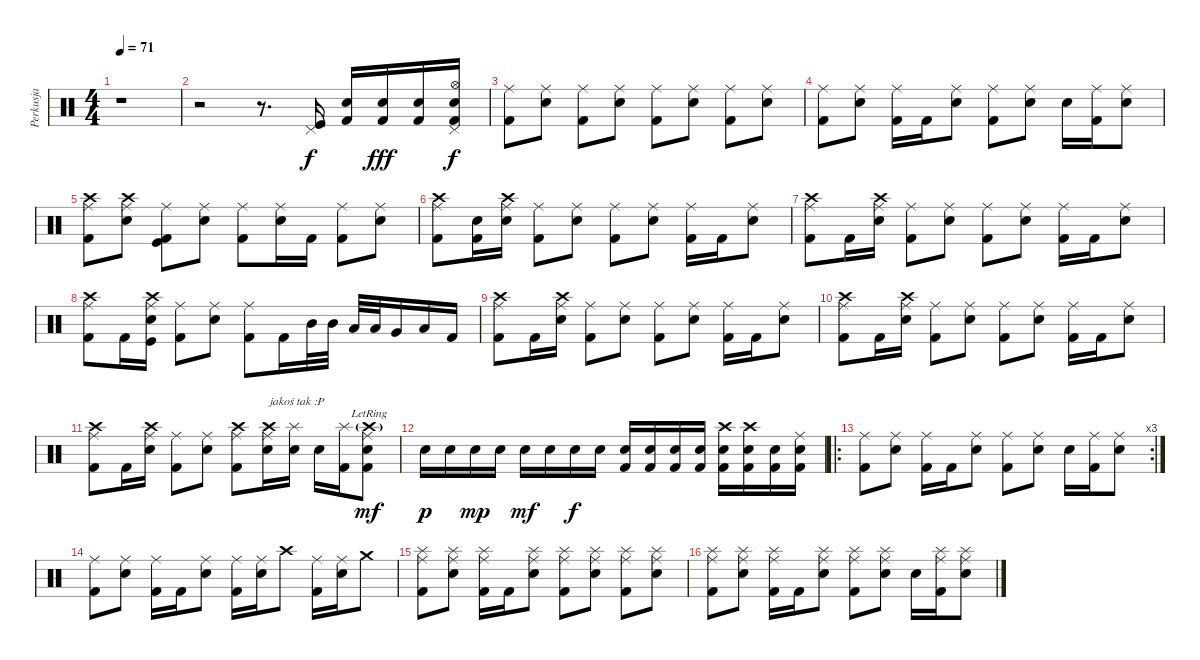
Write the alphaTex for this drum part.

\track ("Perkusja" "Perkusja") {instrument percussion}
\staff {score}
\articulation defaults
\ts (4 4)
\tempo 71
\clef neutral
\ks c
r.1{dy f} |
r.2 r.8{d} ("Pedal Hi-Hat (hit)" "Kick (hit)").16 ("Snare (hit) 2" "Kick (hit) 2").16 ("Snare (hit) 2" "Kick (hit) 2").16{dy fff} ("Snare (hit) 2" "Kick (hit) 2").16 ("Hi-Hat (open)" "Pedal Hi-Hat (hit)" "Electric Snare (hit)" "Kick (hit) 2").16{dy f} |
("Ride (middle)" "Kick (hit) 2").8 ("Ride (middle)" "Electric Snare (hit)").8 ("Ride (middle)" "Kick (hit) 2").8 ("Ride (middle)" "Electric Snare (hit)").8 ("Ride (middle)" "Kick (hit) 2").8 ("Ride (middle)" "Electric Snare (hit)").8 ("Ride (middle)" "Kick (hit) 2").8 ("Ride (middle)" "Electric Snare (hit)").8 |
("Ride (middle)" "Kick (hit) 2").8 ("Ride (middle)" "Electric Snare (hit)").8 ("Ride (middle)" "Kick (hit) 2").16 "Kick (hit) 2".16 ("Ride (middle)" "Electric Snare (hit)").8 ("Ride (middle)" "Kick (hit) 2").8 ("Ride (middle)" "Electric Snare (hit)").8 "Electric Snare (hit)".16 ("Ride (middle)" "Kick (hit) 2").16 ("Ride (middle)" "Electric Snare (hit)").8 |
("Ride (middle)" "Crash high (hit)" "Kick (hit) 2").8 ("Ride (middle)" "Crash high (hit)" "Electric Snare (hit)").8 ("Ride (middle)" "Kick (hit)" "Kick (hit) 2").8 ("Ride (middle)" "Electric Snare (hit)").8 ("Ride (middle)" "Kick (hit) 2").8 ("Ride (middle)" "Electric Snare (hit)").16 "Kick (hit) 2".16 ("Ride (middle)" "Kick (hit) 2").8 ("Ride (middle)" "Electric Snare (hit)").8 |
("Ride (middle)" "Kick (hit) 2" "Crash high (hit)").8 ("Electric Snare (hit)" "Kick (hit) 2").16 ("Ride (middle)" "Electric Snare (hit)" "Crash high (hit)").16 ("Ride (middle)" "Kick (hit) 2").8 ("Ride (middle)" "Electric Snare (hit)").8 ("Ride (middle)" "Kick (hit) 2").8 ("Ride (middle)" "Electric Snare (hit)").8 ("Ride (middle)" "Kick (hit) 2").16 "Kick (hit) 2".16 ("Ride (middle)" "Electric Snare (hit)").8 |
("Ride (middle)" "Kick (hit) 2" "Crash high (hit)").8 "Kick (hit) 2".16 ("Ride (middle)" "Electric Snare (hit)" "Crash high (hit)").16 ("Ride (middle)" "Kick (hit) 2").8 ("Ride (middle)" "Electric Snare (hit)").8 ("Ride (middle)" "Kick (hit) 2").8 ("Ride (middle)" "Electric Snare (hit)").8 ("Ride (middle)" "Kick (hit) 2").16 "Kick (hit) 2".16 ("Ride (middle)" "Electric Snare (hit)").8 |
("Ride (middle)" "Crash high (hit)" "Kick (hit) 2").8 "Kick (hit) 2".16 ("Ride (middle)" "Crash high (hit)" "Electric Snare (hit)" "Kick (hit)").16 ("Ride (middle)" "Kick (hit) 2").8 ("Ride (middle)" "Electric Snare (hit)").8 ("Ride (middle)" "Kick (hit) 2").8 "Kick (hit) 2".16 "Mid Tom (hit)".32 "Mid Tom (hit)".32 "Low Tom (hit)".32 "Low Tom (hit)".32 "Very Low Tom (hit)".16 "Low Floor Tom (hit)".16 "Kick (hit) 2".16 |
("Ride (middle)" "Kick (hit) 2" "Crash high (hit)").8 "Kick (hit) 2".16 ("Ride (middle)" "Electric Snare (hit)" "Crash high (hit)").16 ("Ride (middle)" "Kick (hit) 2").8 ("Ride (middle)" "Electric Snare (hit)").8 ("Ride (middle)" "Kick (hit) 2").8 ("Ride (middle)" "Electric Snare (hit)").8 ("Ride (middle)" "Kick (hit) 2").16 "Kick (hit) 2".16 ("Ride (middle)" "Electric Snare (hit)").8 |
("Ride (middle)" "Kick (hit) 2" "Crash high (hit)").8 "Kick (hit) 2".16 ("Ride (middle)" "Electric Snare (hit)" "Crash high (hit)").16 ("Ride (middle)" "Kick (hit) 2").8 ("Ride (middle)" "Electric Snare (hit)").8 ("Ride (middle)" "Kick (hit) 2").8 ("Ride (middle)" "Electric Snare (hit)").8 ("Ride (middle)" "Kick (hit) 2").16 "Kick (hit) 2".16 ("Ride (middle)" "Electric Snare (hit)").8 |
("Ride (middle)" "Kick (hit) 2" "Crash high (hit)").8 "Kick (hit) 2".16 ("Ride (middle)" "Electric Snare (hit)" "Crash high (hit)").16 ("Ride (middle)" "Kick (hit) 2").8 ("Ride (middle)" "Electric Snare (hit)").8 ("Ride (middle)" "Kick (hit) 2" "Crash high (hit)").8 ("Ride (middle)" "Electric Snare (hit)" "Crash high (hit)").16{txt "jakoś tak :P"} ("Splash (hit)" "Electric Snare (hit)").16 "Electric Snare (hit)".16 ("Splash (hit)" "Kick (hit) 2").16 ("Ride (middle)"{lr} "Crash high (hit)"{g lr} "Kick (hit) 2"{lr} "Electric Snare (hit)").8{dy mf} |
"Electric Snare (hit)".16{dy p} "Electric Snare (hit)".16 "Electric Snare (hit)".16{dy mp} "Electric Snare (hit)".16 "Electric Snare (hit)".16{dy mf} "Electric Snare (hit)".16 "Electric Snare (hit)".16{dy f} "Electric Snare (hit)".16 ("Kick (hit) 2" "Electric Snare (hit)").16 ("Kick (hit) 2" "Electric Snare (hit)").16 ("Kick (hit) 2" "Electric Snare (hit)").16 ("Kick (hit) 2" "Electric Snare (hit)").16 ("Crash high (hit)" "Kick (hit) 2" "Electric Snare (hit)").16 ("Crash high (hit)" "Kick (hit) 2" "Electric Snare (hit)").16 ("Kick (hit) 2" "Electric Snare (hit)").16 ("Ride (middle)" "Kick (hit) 2" "Electric Snare (hit)").16 |
\ro
\rc 3
("Ride (middle)" "Kick (hit) 2").8 ("Ride (middle)" "Electric Snare (hit)").8 ("Ride (middle)" "Kick (hit) 2").16 "Kick (hit) 2".16 ("Ride (middle)" "Electric Snare (hit)").8 ("Ride (middle)" "Kick (hit) 2").8 ("Ride (middle)" "Electric Snare (hit)").8 "Electric Snare (hit)".16 ("Ride (middle)" "Kick (hit) 2").16 ("Ride (middle)" "Electric Snare (hit)").8 |
("Ride (middle)" "Kick (hit) 2").8 ("Ride (middle)" "Electric Snare (hit)").8 ("Ride (middle)" "Kick (hit) 2").16 "Kick (hit) 2".16 ("Ride (middle)" "Electric Snare (hit)").8 ("Ride (middle)" "Kick (hit) 2").16 ("Ride (middle)" "Electric Snare (hit)").16 "Crash high (hit)".8 ("Ride (middle)" "Kick (hit) 2").16 ("Ride (middle)" "Electric Snare (hit)").16 "Crash medium (hit)".8 |
("Ride (middle)" "Splash (hit)" "Kick (hit) 2").8 ("Ride (middle)" "Splash (hit)" "Electric Snare (hit)").8 ("Ride (middle)" "Splash (hit)" "Kick (hit) 2").16 "Kick (hit) 2".16 ("Ride (middle)" "Splash (hit)" "Electric Snare (hit)").8 ("Ride (middle)" "Splash (hit)" "Kick (hit) 2").8 ("Ride (middle)" "Splash (hit)" "Electric Snare (hit)").8 ("Ride (middle)" "Splash (hit)" "Kick (hit) 2").8 ("Ride (middle)" "Splash (hit)" "Electric Snare (hit)").8 |
("Ride (middle)" "Splash (hit)" "Kick (hit) 2").8 ("Ride (middle)" "Splash (hit)" "Electric Snare (hit)").8 ("Ride (middle)" "Splash (hit)" "Kick (hit) 2").16 "Kick (hit) 2".16 ("Ride (middle)" "Splash (hit)" "Electric Snare (hit)").8 ("Ride (middle)" "Splash (hit)" "Kick (hit) 2").8 ("Ride (middle)" "Splash (hit)" "Electric Snare (hit)").8 "Electric Snare (hit)".16 ("Ride (middle)" "Splash (hit)" "Kick (hit) 2").16 ("Ride (middle)" "Splash (hit)" "Electric Snare (hit)").8
